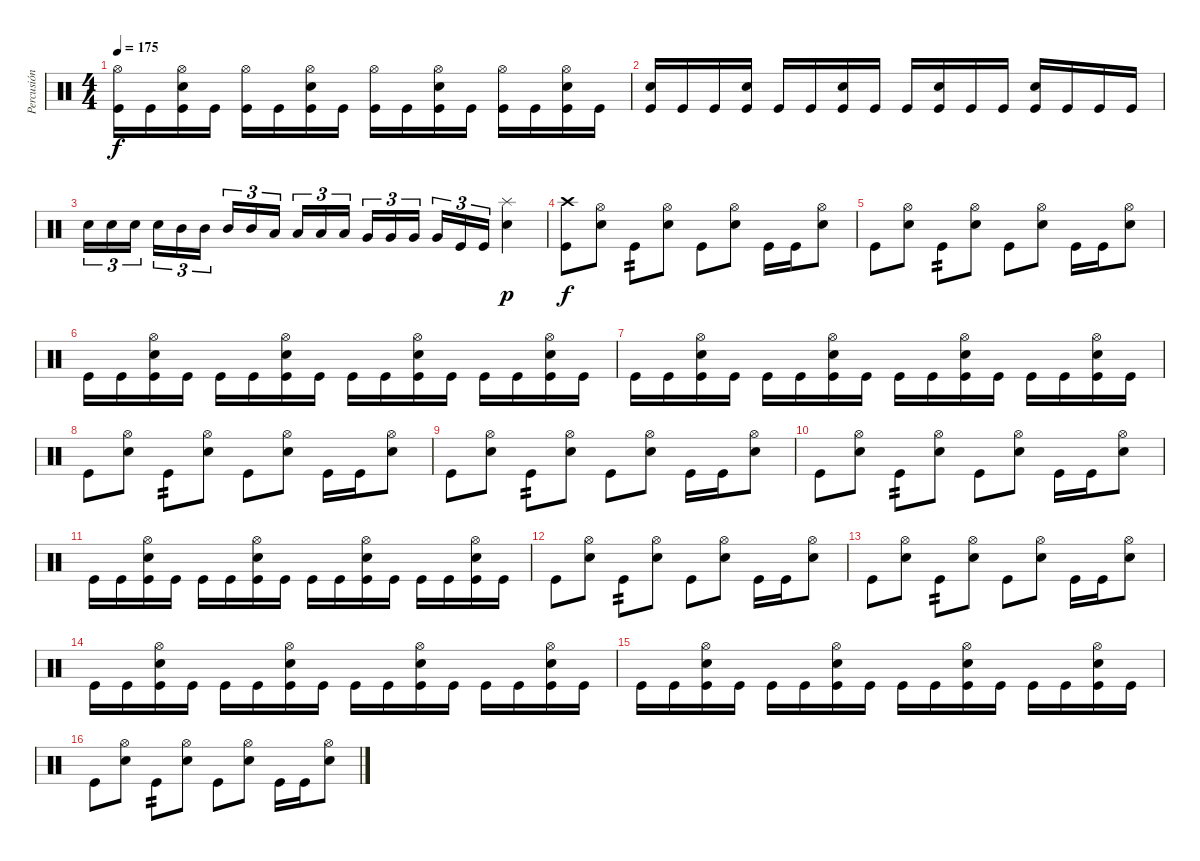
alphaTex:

\track ("Percusión" "Percusión") {instrument percussion}
\staff {score}
\articulation defaults
\ts (4 4)
\tempo 175
\clef neutral
\ks c
("Hi-Hat (open)" "Kick (hit)").16{dy f} "Kick (hit)".16 ("Hi-Hat (open)" "Snare (hit) 2" "Kick (hit)").16 "Kick (hit)".16 ("Hi-Hat (open)" "Kick (hit)").16 "Kick (hit)".16 ("Hi-Hat (open)" "Snare (hit) 2" "Kick (hit)").16 "Kick (hit)".16 ("Hi-Hat (open)" "Kick (hit)").16 "Kick (hit)".16 ("Hi-Hat (open)" "Snare (hit) 2" "Kick (hit)").16 "Kick (hit)".16 ("Hi-Hat (open)" "Kick (hit)").16 "Kick (hit)".16 ("Hi-Hat (open)" "Snare (hit) 2" "Kick (hit)").16 "Kick (hit)".16 |
("Snare (hit) 2" "Kick (hit)").16 "Kick (hit)".16 "Kick (hit)".16 ("Snare (hit) 2" "Kick (hit)").16 "Kick (hit)".16 "Kick (hit)".16 ("Snare (hit) 2" "Kick (hit)").16 "Kick (hit)".16 "Kick (hit)".16 ("Snare (hit) 2" "Kick (hit)").16 "Kick (hit)".16 "Kick (hit)".16 ("Snare (hit) 2" "Kick (hit)").16 "Kick (hit)".16 "Kick (hit)".16 "Kick (hit)".16 |
"Snare (hit) 2".16{tu (3 2)} "Snare (hit) 2".16{tu (3 2)} "Snare (hit) 2".16{tu (3 2) beam splitsecondary} "Snare (hit) 2".16{tu (3 2)} "Mid Tom (hit)".16{tu (3 2)} "Mid Tom (hit)".16{tu (3 2)} "Mid Tom (hit)".16{tu (3 2)} "Mid Tom (hit)".16{tu (3 2)} "Low Tom (hit)".16{tu (3 2) beam splitsecondary} "Low Tom (hit)".16{tu (3 2)} "Low Tom (hit)".16{tu (3 2)} "Low Tom (hit)".16{tu (3 2)} "Very Low Tom (hit)".16{tu (3 2)} "Very Low Tom (hit)".16{tu (3 2)} "Very Low Tom (hit)".16{tu (3 2) beam splitsecondary} "Very Low Tom (hit)".16{tu (3 2)} "Kick (hit)".16{tu (3 2)} "Kick (hit)".16{tu (3 2)} ("Splash (hit)" "Snare (hit) 2").4{dy p} |
("Crash high (hit)" "Kick (hit)").8{dy f} ("Hi-Hat (open)" "Snare (hit) 2").8 "Kick (hit)".8{tp 2} ("Hi-Hat (open)" "Snare (hit) 2").8 "Kick (hit)".8 ("Hi-Hat (open)" "Snare (hit) 2").8 "Kick (hit)".16 "Kick (hit)".16 ("Hi-Hat (open)" "Snare (hit) 2").8 |
"Kick (hit)".8 ("Hi-Hat (open)" "Snare (hit) 2").8 "Kick (hit)".8{tp 2} ("Hi-Hat (open)" "Snare (hit) 2").8 "Kick (hit)".8 ("Hi-Hat (open)" "Snare (hit) 2").8 "Kick (hit)".16 "Kick (hit)".16 ("Hi-Hat (open)" "Snare (hit) 2").8 |
"Kick (hit)".16 "Kick (hit)".16 ("Hi-Hat (open)" "Snare (hit) 2" "Kick (hit)").16 "Kick (hit)".16 "Kick (hit)".16 "Kick (hit)".16 ("Hi-Hat (open)" "Snare (hit) 2" "Kick (hit)").16 "Kick (hit)".16 "Kick (hit)".16 "Kick (hit)".16 ("Hi-Hat (open)" "Snare (hit) 2" "Kick (hit)").16 "Kick (hit)".16 "Kick (hit)".16 "Kick (hit)".16 ("Hi-Hat (open)" "Snare (hit) 2" "Kick (hit)").16 "Kick (hit)".16 |
"Kick (hit)".16 "Kick (hit)".16 ("Hi-Hat (open)" "Snare (hit) 2" "Kick (hit)").16 "Kick (hit)".16 "Kick (hit)".16 "Kick (hit)".16 ("Hi-Hat (open)" "Snare (hit) 2" "Kick (hit)").16 "Kick (hit)".16 "Kick (hit)".16 "Kick (hit)".16 ("Hi-Hat (open)" "Snare (hit) 2" "Kick (hit)").16 "Kick (hit)".16 "Kick (hit)".16 "Kick (hit)".16 ("Hi-Hat (open)" "Snare (hit) 2" "Kick (hit)").16 "Kick (hit)".16 |
"Kick (hit)".8 ("Hi-Hat (open)" "Snare (hit) 2").8 "Kick (hit)".8{tp 2} ("Hi-Hat (open)" "Snare (hit) 2").8 "Kick (hit)".8 ("Hi-Hat (open)" "Snare (hit) 2").8 "Kick (hit)".16 "Kick (hit)".16 ("Hi-Hat (open)" "Snare (hit) 2").8 |
"Kick (hit)".8 ("Hi-Hat (open)" "Snare (hit) 2").8 "Kick (hit)".8{tp 2} ("Hi-Hat (open)" "Snare (hit) 2").8 "Kick (hit)".8 ("Hi-Hat (open)" "Snare (hit) 2").8 "Kick (hit)".16 "Kick (hit)".16 ("Hi-Hat (open)" "Snare (hit) 2").8 |
"Kick (hit)".8 ("Hi-Hat (open)" "Snare (hit) 2").8 "Kick (hit)".8{tp 2} ("Hi-Hat (open)" "Snare (hit) 2").8 "Kick (hit)".8 ("Hi-Hat (open)" "Snare (hit) 2").8 "Kick (hit)".16 "Kick (hit)".16 ("Hi-Hat (open)" "Snare (hit) 2").8 |
"Kick (hit)".16 "Kick (hit)".16 ("Hi-Hat (open)" "Snare (hit) 2" "Kick (hit)").16 "Kick (hit)".16 "Kick (hit)".16 "Kick (hit)".16 ("Hi-Hat (open)" "Snare (hit) 2" "Kick (hit)").16 "Kick (hit)".16 "Kick (hit)".16 "Kick (hit)".16 ("Hi-Hat (open)" "Snare (hit) 2" "Kick (hit)").16 "Kick (hit)".16 "Kick (hit)".16 "Kick (hit)".16 ("Hi-Hat (open)" "Snare (hit) 2" "Kick (hit)").16 "Kick (hit)".16 |
"Kick (hit)".8 ("Hi-Hat (open)" "Snare (hit) 2").8 "Kick (hit)".8{tp 2} ("Hi-Hat (open)" "Snare (hit) 2").8 "Kick (hit)".8 ("Hi-Hat (open)" "Snare (hit) 2").8 "Kick (hit)".16 "Kick (hit)".16 ("Hi-Hat (open)" "Snare (hit) 2").8 |
"Kick (hit)".8 ("Hi-Hat (open)" "Snare (hit) 2").8 "Kick (hit)".8{tp 2} ("Hi-Hat (open)" "Snare (hit) 2").8 "Kick (hit)".8 ("Hi-Hat (open)" "Snare (hit) 2").8 "Kick (hit)".16 "Kick (hit)".16 ("Hi-Hat (open)" "Snare (hit) 2").8 |
"Kick (hit)".16 "Kick (hit)".16 ("Hi-Hat (open)" "Snare (hit) 2" "Kick (hit)").16 "Kick (hit)".16 "Kick (hit)".16 "Kick (hit)".16 ("Hi-Hat (open)" "Snare (hit) 2" "Kick (hit)").16 "Kick (hit)".16 "Kick (hit)".16 "Kick (hit)".16 ("Hi-Hat (open)" "Snare (hit) 2" "Kick (hit)").16 "Kick (hit)".16 "Kick (hit)".16 "Kick (hit)".16 ("Hi-Hat (open)" "Snare (hit) 2" "Kick (hit)").16 "Kick (hit)".16 |
"Kick (hit)".16 "Kick (hit)".16 ("Hi-Hat (open)" "Snare (hit) 2" "Kick (hit)").16 "Kick (hit)".16 "Kick (hit)".16 "Kick (hit)".16 ("Hi-Hat (open)" "Snare (hit) 2" "Kick (hit)").16 "Kick (hit)".16 "Kick (hit)".16 "Kick (hit)".16 ("Hi-Hat (open)" "Snare (hit) 2" "Kick (hit)").16 "Kick (hit)".16 "Kick (hit)".16 "Kick (hit)".16 ("Hi-Hat (open)" "Snare (hit) 2" "Kick (hit)").16 "Kick (hit)".16 |
"Kick (hit)".8 ("Hi-Hat (open)" "Snare (hit) 2").8 "Kick (hit)".8{tp 2} ("Hi-Hat (open)" "Snare (hit) 2").8 "Kick (hit)".8 ("Hi-Hat (open)" "Snare (hit) 2").8 "Kick (hit)".16 "Kick (hit)".16 ("Hi-Hat (open)" "Snare (hit) 2").8
